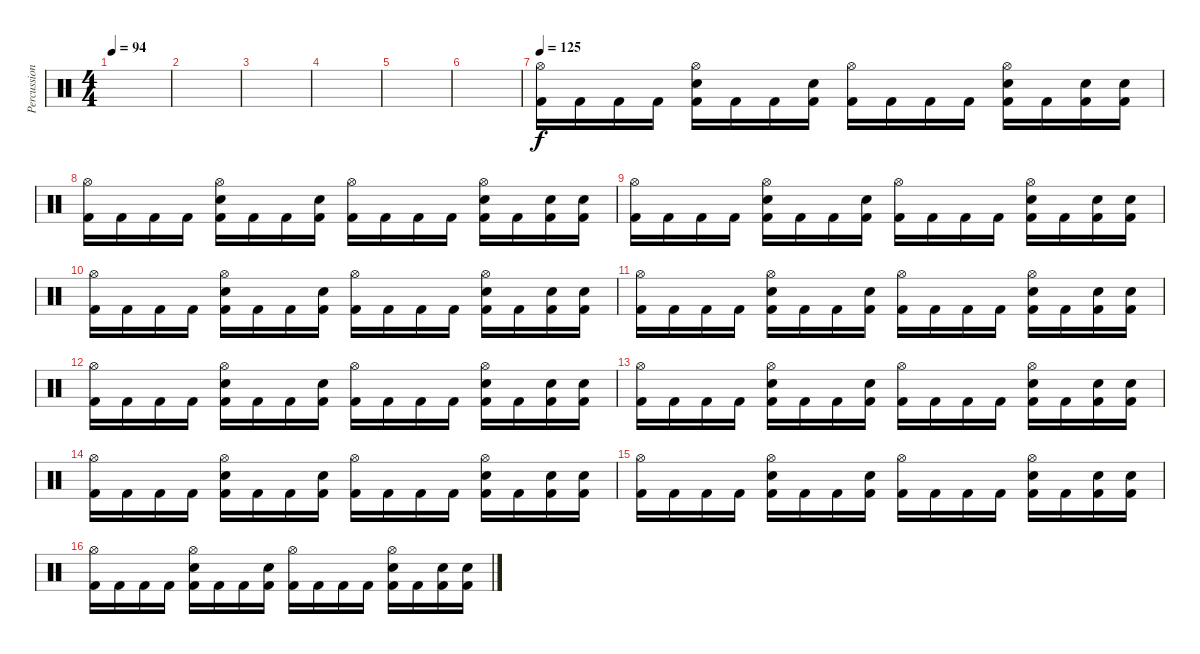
\track ("Percussion - [Drums]" "Percussion") {instrument percussion}
\staff {score}
\articulation defaults
\ts (4 4)
\tempo 94
\clef neutral
\ks c
|
|
|
|
|
|
\tempo 125
("Hi-Hat (open)" "Kick (hit) 2").16 "Kick (hit) 2".16 "Kick (hit) 2".16 "Kick (hit) 2".16 ("Hi-Hat (open)" "Snare (hit) 2" "Kick (hit) 2").16 "Kick (hit) 2".16 "Kick (hit) 2".16 ("Snare (hit) 2" "Kick (hit) 2").16 ("Hi-Hat (open)" "Kick (hit) 2").16 "Kick (hit) 2".16 "Kick (hit) 2".16 "Kick (hit) 2".16 ("Hi-Hat (open)" "Snare (hit) 2" "Kick (hit) 2").16 "Kick (hit) 2".16 ("Snare (hit) 2" "Kick (hit) 2").16 ("Snare (hit) 2" "Kick (hit) 2").16 |
("Hi-Hat (open)" "Kick (hit) 2").16 "Kick (hit) 2".16 "Kick (hit) 2".16 "Kick (hit) 2".16 ("Hi-Hat (open)" "Snare (hit) 2" "Kick (hit) 2").16 "Kick (hit) 2".16 "Kick (hit) 2".16 ("Snare (hit) 2" "Kick (hit) 2").16 ("Hi-Hat (open)" "Kick (hit) 2").16 "Kick (hit) 2".16 "Kick (hit) 2".16 "Kick (hit) 2".16 ("Hi-Hat (open)" "Snare (hit) 2" "Kick (hit) 2").16 "Kick (hit) 2".16 ("Snare (hit) 2" "Kick (hit) 2").16 ("Snare (hit) 2" "Kick (hit) 2").16 |
("Hi-Hat (open)" "Kick (hit) 2").16 "Kick (hit) 2".16 "Kick (hit) 2".16 "Kick (hit) 2".16 ("Hi-Hat (open)" "Snare (hit) 2" "Kick (hit) 2").16 "Kick (hit) 2".16 "Kick (hit) 2".16 ("Snare (hit) 2" "Kick (hit) 2").16 ("Hi-Hat (open)" "Kick (hit) 2").16 "Kick (hit) 2".16 "Kick (hit) 2".16 "Kick (hit) 2".16 ("Hi-Hat (open)" "Snare (hit) 2" "Kick (hit) 2").16 "Kick (hit) 2".16 ("Snare (hit) 2" "Kick (hit) 2").16 ("Snare (hit) 2" "Kick (hit) 2").16 |
("Hi-Hat (open)" "Kick (hit) 2").16 "Kick (hit) 2".16 "Kick (hit) 2".16 "Kick (hit) 2".16 ("Hi-Hat (open)" "Snare (hit) 2" "Kick (hit) 2").16 "Kick (hit) 2".16 "Kick (hit) 2".16 ("Snare (hit) 2" "Kick (hit) 2").16 ("Hi-Hat (open)" "Kick (hit) 2").16 "Kick (hit) 2".16 "Kick (hit) 2".16 "Kick (hit) 2".16 ("Hi-Hat (open)" "Snare (hit) 2" "Kick (hit) 2").16 "Kick (hit) 2".16 ("Snare (hit) 2" "Kick (hit) 2").16 ("Snare (hit) 2" "Kick (hit) 2").16 |
("Hi-Hat (open)" "Kick (hit) 2").16 "Kick (hit) 2".16 "Kick (hit) 2".16 "Kick (hit) 2".16 ("Hi-Hat (open)" "Snare (hit) 2" "Kick (hit) 2").16 "Kick (hit) 2".16 "Kick (hit) 2".16 ("Snare (hit) 2" "Kick (hit) 2").16 ("Hi-Hat (open)" "Kick (hit) 2").16 "Kick (hit) 2".16 "Kick (hit) 2".16 "Kick (hit) 2".16 ("Hi-Hat (open)" "Snare (hit) 2" "Kick (hit) 2").16 "Kick (hit) 2".16 ("Snare (hit) 2" "Kick (hit) 2").16 ("Snare (hit) 2" "Kick (hit) 2").16 |
("Hi-Hat (open)" "Kick (hit) 2").16 "Kick (hit) 2".16 "Kick (hit) 2".16 "Kick (hit) 2".16 ("Hi-Hat (open)" "Snare (hit) 2" "Kick (hit) 2").16 "Kick (hit) 2".16 "Kick (hit) 2".16 ("Snare (hit) 2" "Kick (hit) 2").16 ("Hi-Hat (open)" "Kick (hit) 2").16 "Kick (hit) 2".16 "Kick (hit) 2".16 "Kick (hit) 2".16 ("Hi-Hat (open)" "Snare (hit) 2" "Kick (hit) 2").16 "Kick (hit) 2".16 ("Snare (hit) 2" "Kick (hit) 2").16 ("Snare (hit) 2" "Kick (hit) 2").16 |
("Hi-Hat (open)" "Kick (hit) 2").16 "Kick (hit) 2".16 "Kick (hit) 2".16 "Kick (hit) 2".16 ("Hi-Hat (open)" "Snare (hit) 2" "Kick (hit) 2").16 "Kick (hit) 2".16 "Kick (hit) 2".16 ("Snare (hit) 2" "Kick (hit) 2").16 ("Hi-Hat (open)" "Kick (hit) 2").16 "Kick (hit) 2".16 "Kick (hit) 2".16 "Kick (hit) 2".16 ("Hi-Hat (open)" "Snare (hit) 2" "Kick (hit) 2").16 "Kick (hit) 2".16 ("Snare (hit) 2" "Kick (hit) 2").16 ("Snare (hit) 2" "Kick (hit) 2").16 |
("Hi-Hat (open)" "Kick (hit) 2").16 "Kick (hit) 2".16 "Kick (hit) 2".16 "Kick (hit) 2".16 ("Hi-Hat (open)" "Snare (hit) 2" "Kick (hit) 2").16 "Kick (hit) 2".16 "Kick (hit) 2".16 ("Snare (hit) 2" "Kick (hit) 2").16 ("Hi-Hat (open)" "Kick (hit) 2").16 "Kick (hit) 2".16 "Kick (hit) 2".16 "Kick (hit) 2".16 ("Hi-Hat (open)" "Snare (hit) 2" "Kick (hit) 2").16 "Kick (hit) 2".16 ("Snare (hit) 2" "Kick (hit) 2").16 ("Snare (hit) 2" "Kick (hit) 2").16 |
("Hi-Hat (open)" "Kick (hit) 2").16 "Kick (hit) 2".16 "Kick (hit) 2".16 "Kick (hit) 2".16 ("Hi-Hat (open)" "Snare (hit) 2" "Kick (hit) 2").16 "Kick (hit) 2".16 "Kick (hit) 2".16 ("Snare (hit) 2" "Kick (hit) 2").16 ("Hi-Hat (open)" "Kick (hit) 2").16 "Kick (hit) 2".16 "Kick (hit) 2".16 "Kick (hit) 2".16 ("Hi-Hat (open)" "Snare (hit) 2" "Kick (hit) 2").16 "Kick (hit) 2".16 ("Snare (hit) 2" "Kick (hit) 2").16 ("Snare (hit) 2" "Kick (hit) 2").16 |
("Hi-Hat (open)" "Kick (hit) 2").16 "Kick (hit) 2".16 "Kick (hit) 2".16 "Kick (hit) 2".16 ("Hi-Hat (open)" "Snare (hit) 2" "Kick (hit) 2").16 "Kick (hit) 2".16 "Kick (hit) 2".16 ("Snare (hit) 2" "Kick (hit) 2").16 ("Hi-Hat (open)" "Kick (hit) 2").16 "Kick (hit) 2".16 "Kick (hit) 2".16 "Kick (hit) 2".16 ("Hi-Hat (open)" "Snare (hit) 2" "Kick (hit) 2").16 "Kick (hit) 2".16 ("Snare (hit) 2" "Kick (hit) 2").16 ("Snare (hit) 2" "Kick (hit) 2").16
